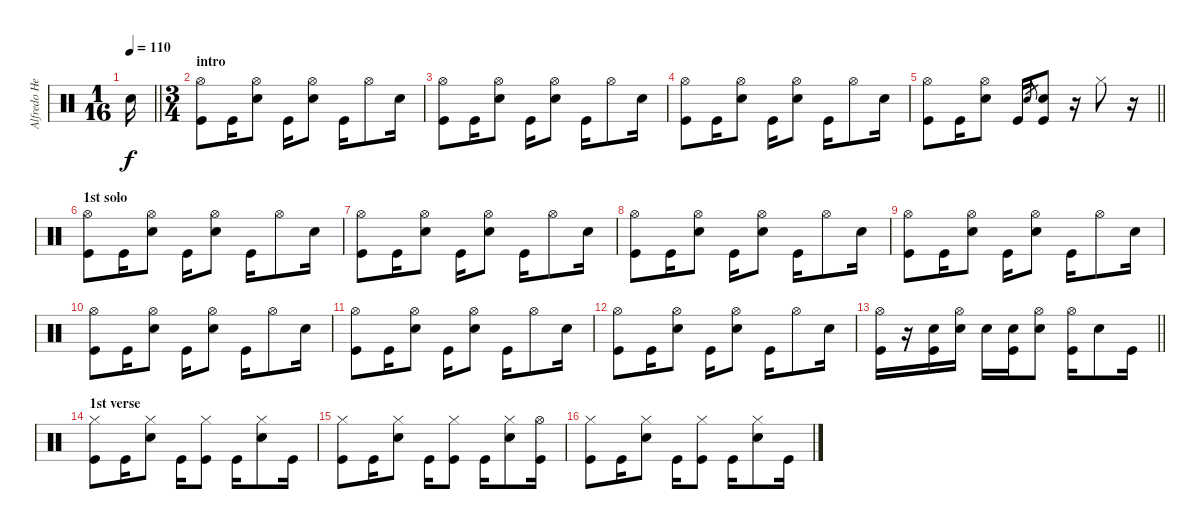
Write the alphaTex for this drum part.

\track ("Alfredo Hernandez" "Alfredo He") {instrument percussion}
\staff {score}
\articulation defaults
\ts (1 16)
\tempo 110
\clef neutral
\barLineRight lightlight
\ks c "Electric Snare (hit)".16{dy f}
|
\ts (3 4)
\section ("" "intro")
("Kick (hit)" "Hi-Hat (open)").8 "Kick (hit)".16 ("Electric Snare (hit)" "Hi-Hat (open)").8 "Kick (hit)".16 ("Electric Snare (hit)" "Hi-Hat (open)").8 "Kick (hit)".16 "Hi-Hat (open)".8 "Electric Snare (hit)".16 |
("Kick (hit)" "Hi-Hat (open)").8 "Kick (hit)".16 ("Electric Snare (hit)" "Hi-Hat (open)").8 "Kick (hit)".16 ("Electric Snare (hit)" "Hi-Hat (open)").8 "Kick (hit)".16 "Hi-Hat (open)".8 "Electric Snare (hit)".16 |
("Kick (hit)" "Hi-Hat (open)").8 "Kick (hit)".16 ("Electric Snare (hit)" "Hi-Hat (open)").8 "Kick (hit)".16 ("Electric Snare (hit)" "Hi-Hat (open)").8 "Kick (hit)".16 "Hi-Hat (open)".8 "Electric Snare (hit)".16 |
\barLineRight lightlight
("Kick (hit)" "Hi-Hat (open)").8 "Kick (hit)".16 ("Electric Snare (hit)" "Hi-Hat (open)").8 "Kick (hit)".16 "Electric Snare (hit)".8{gr} ("Kick (hit)" "Electric Snare (hit)").8 r.16 "Hi-Hat (closed)".8 r.16 |
\section ("" "1st solo")
("Kick (hit)" "Hi-Hat (open)").8 "Kick (hit)".16 ("Electric Snare (hit)" "Hi-Hat (open)").8 "Kick (hit)".16 ("Electric Snare (hit)" "Hi-Hat (open)").8 "Kick (hit)".16 "Hi-Hat (open)".8 "Electric Snare (hit)".16 |
("Kick (hit)" "Hi-Hat (open)").8 "Kick (hit)".16 ("Electric Snare (hit)" "Hi-Hat (open)").8 "Kick (hit)".16 ("Electric Snare (hit)" "Hi-Hat (open)").8 "Kick (hit)".16 "Hi-Hat (open)".8 "Electric Snare (hit)".16 |
("Kick (hit)" "Hi-Hat (open)").8 "Kick (hit)".16 ("Electric Snare (hit)" "Hi-Hat (open)").8 "Kick (hit)".16 ("Electric Snare (hit)" "Hi-Hat (open)").8 "Kick (hit)".16 "Hi-Hat (open)".8 "Electric Snare (hit)".16 |
("Kick (hit)" "Hi-Hat (open)").8 "Kick (hit)".16 ("Electric Snare (hit)" "Hi-Hat (open)").8 "Kick (hit)".16 ("Electric Snare (hit)" "Hi-Hat (open)").8 "Kick (hit)".16 "Hi-Hat (open)".8 "Electric Snare (hit)".16 |
("Kick (hit)" "Hi-Hat (open)").8 "Kick (hit)".16 ("Electric Snare (hit)" "Hi-Hat (open)").8 "Kick (hit)".16 ("Electric Snare (hit)" "Hi-Hat (open)").8 "Kick (hit)".16 "Hi-Hat (open)".8 "Electric Snare (hit)".16 |
("Kick (hit)" "Hi-Hat (open)").8 "Kick (hit)".16 ("Electric Snare (hit)" "Hi-Hat (open)").8 "Kick (hit)".16 ("Electric Snare (hit)" "Hi-Hat (open)").8 "Kick (hit)".16 "Hi-Hat (open)".8 "Electric Snare (hit)".16 |
("Kick (hit)" "Hi-Hat (open)").8 "Kick (hit)".16 ("Electric Snare (hit)" "Hi-Hat (open)").8 "Kick (hit)".16 ("Electric Snare (hit)" "Hi-Hat (open)").8 "Kick (hit)".16 "Hi-Hat (open)".8 "Electric Snare (hit)".16 |
\barLineRight lightlight
("Kick (hit)" "Hi-Hat (open)").16 r.16 ("Kick (hit)" "Electric Snare (hit)").16 ("Electric Snare (hit)" "Hi-Hat (open)").16 "Electric Snare (hit)".16 ("Kick (hit)" "Electric Snare (hit)").16 ("Electric Snare (hit)" "Hi-Hat (open)").8 ("Kick (hit)" "Hi-Hat (open)").16 "Electric Snare (hit)".8 "Kick (hit)".16 |
\section ("" "1st verse")
("Kick (hit)" "Hi-Hat (closed)").8 "Kick (hit)".16 ("Electric Snare (hit)" "Hi-Hat (closed)").8 "Kick (hit)".16 ("Kick (hit)" "Hi-Hat (closed)").8 "Kick (hit)".16 ("Electric Snare (hit)" "Hi-Hat (closed)").8 "Kick (hit)".16 |
("Kick (hit)" "Hi-Hat (closed)").8 "Kick (hit)".16 ("Electric Snare (hit)" "Hi-Hat (closed)").8 "Kick (hit)".16 ("Kick (hit)" "Hi-Hat (closed)").8 "Kick (hit)".16 ("Electric Snare (hit)" "Hi-Hat (closed)").8 ("Kick (hit)" "Hi-Hat (open)").16 |
("Kick (hit)" "Hi-Hat (closed)").8 "Kick (hit)".16 ("Electric Snare (hit)" "Hi-Hat (closed)").8 "Kick (hit)".16 ("Kick (hit)" "Hi-Hat (closed)").8 "Kick (hit)".16 ("Electric Snare (hit)" "Hi-Hat (closed)").8 "Kick (hit)".16
